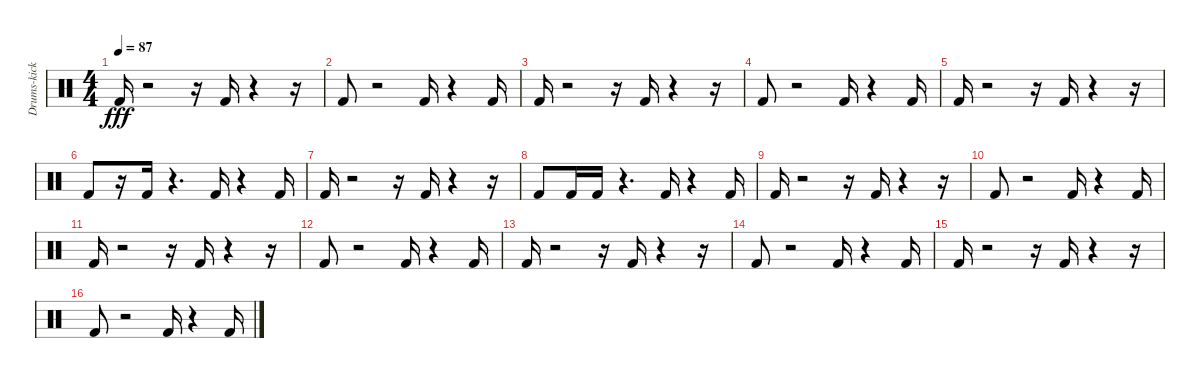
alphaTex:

\track ("Drums-kick drum 1" "Drums-kick") {instrument percussion}
\staff {score}
\articulation defaults
\ts (4 4)
\tempo 87
\clef neutral
\ks c "Kick (hit) 2".16{dy fff}
r.2 r.16 "Kick (hit) 2".16 r.4 r.16 |
"Kick (hit) 2".8 r.2 "Kick (hit) 2".16 r.4 "Kick (hit) 2".16 |
"Kick (hit) 2".16 r.2 r.16 "Kick (hit) 2".16 r.4 r.16 |
"Kick (hit) 2".8 r.2 "Kick (hit) 2".16 r.4 "Kick (hit) 2".16 |
"Kick (hit) 2".16 r.2 r.16 "Kick (hit) 2".16 r.4 r.16 |
"Kick (hit) 2".8 r.16 "Kick (hit) 2".16 r.4{d} "Kick (hit) 2".16 r.4 "Kick (hit) 2".16 |
"Kick (hit) 2".16 r.2 r.16 "Kick (hit) 2".16 r.4 r.16 |
"Kick (hit) 2".8 "Kick (hit) 2".16 "Kick (hit) 2".16 r.4{d} "Kick (hit) 2".16 r.4 "Kick (hit) 2".16 |
"Kick (hit) 2".16 r.2 r.16 "Kick (hit) 2".16 r.4 r.16 |
"Kick (hit) 2".8 r.2 "Kick (hit) 2".16 r.4 "Kick (hit) 2".16 |
"Kick (hit) 2".16 r.2 r.16 "Kick (hit) 2".16 r.4 r.16 |
"Kick (hit) 2".8 r.2 "Kick (hit) 2".16 r.4 "Kick (hit) 2".16 |
"Kick (hit) 2".16 r.2 r.16 "Kick (hit) 2".16 r.4 r.16 |
"Kick (hit) 2".8 r.2 "Kick (hit) 2".16 r.4 "Kick (hit) 2".16 |
"Kick (hit) 2".16 r.2 r.16 "Kick (hit) 2".16 r.4 r.16 |
"Kick (hit) 2".8 r.2 "Kick (hit) 2".16 r.4 "Kick (hit) 2".16
